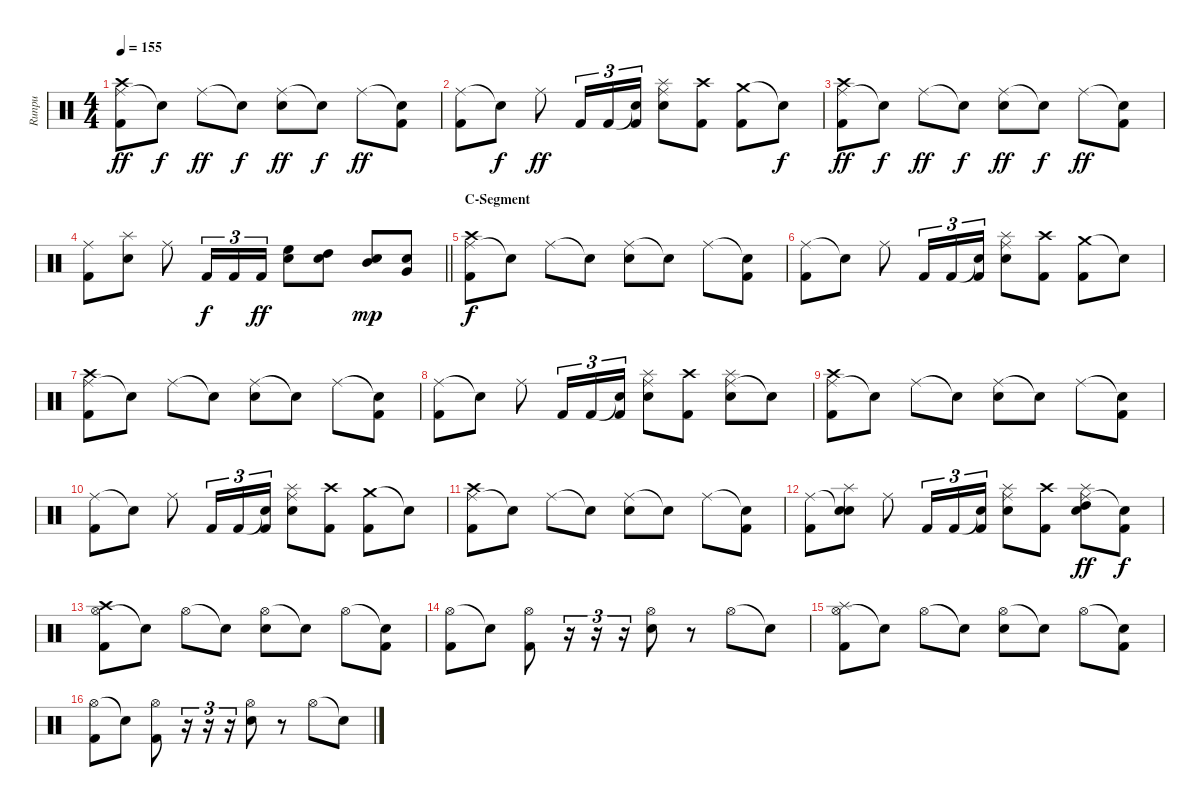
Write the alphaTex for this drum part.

\track ("Runpu" "Runpu") {instrument percussion}
\staff {score}
\articulation defaults
\ts (4 4)
\tempo 155
\clef neutral
\ks c
("Ride (middle)" "Crash high (hit)" "Kick (hit) 2").8{dy ff} "Snare (hit)"{t}.8{dy f} "Ride (middle)".8{dy ff} "Snare (hit)"{t}.8{dy f} ("Ride (middle)" "Snare (hit) 2").8{dy ff} "Snare (hit)"{t}.8{dy f} "Ride (middle)".8{dy ff} ("Snare (hit)"{t} "Kick (hit) 2").8 |
("Ride (middle)" "Kick (hit) 2").8 "Snare (hit)"{t}.8{dy f} "Ride (middle)".8{dy ff} "Kick (hit) 2".16{tu (3 2)} "Kick (hit) 2".16{tu (3 2)} ("Snare (hit)"{t} "Kick (hit) 2").16{tu (3 2)} ("Ride (middle)" "Splash (hit)" "Snare (hit) 2").8 ("Crash high (hit)" "Kick (hit) 2").8 ("Crash medium (hit)" "Kick (hit) 2").8 "Snare (hit)"{t}.8{dy f} |
("Ride (middle)" "Crash high (hit)" "Kick (hit) 2").8{dy ff} "Snare (hit)"{t}.8{dy f} "Ride (middle)".8{dy ff} "Snare (hit)"{t}.8{dy f} ("Ride (middle)" "Snare (hit) 2").8{dy ff} "Snare (hit)"{t}.8{dy f} "Ride (middle)".8{dy ff} ("Snare (hit)"{t} "Kick (hit) 2").8 |
\barLineRight lightlight
("Ride (middle)" "Kick (hit) 2").8 ("Splash (hit)" "Snare (hit) 2").8 "Ride (middle)".8 "Kick (hit) 2".16{tu (3 2) dy f} "Kick (hit) 2".16{tu (3 2)} "Kick (hit) 2".16{tu (3 2) dy ff} ("High Floor Tom (hit)" "Snare (hit) 2").8 ("High Tom (hit)" "Electric Snare (hit)").8 ("Mid Tom (hit)" "Electric Snare (hit)").8{dy mp} ("Very Low Tom (hit)" "Electric Snare (hit)").8 |
\section ("" "C-Segment")
("Ride (middle)" "Crash high (hit)" "Kick (hit) 2").8{dy f} "Snare (hit)"{t}.8 "Ride (middle)".8 "Snare (hit)"{t}.8 ("Ride (middle)" "Snare (hit) 2").8 "Snare (hit)"{t}.8 "Ride (middle)".8 ("Snare (hit)"{t} "Kick (hit) 2").8 |
("Ride (middle)" "Kick (hit) 2").8 "Snare (hit)"{t}.8 "Ride (middle)".8 "Kick (hit) 2".16{tu (3 2)} "Kick (hit) 2".16{tu (3 2)} ("Snare (hit)"{t} "Kick (hit) 2").16{tu (3 2)} ("Ride (middle)" "Splash (hit)" "Snare (hit) 2").8 ("Crash high (hit)" "Kick (hit) 2").8 ("Crash medium (hit)" "Kick (hit) 2").8 "Snare (hit)"{t}.8 |
("Ride (middle)" "Crash high (hit)" "Kick (hit) 2").8 "Snare (hit)"{t}.8 "Ride (middle)".8 "Snare (hit)"{t}.8 ("Ride (middle)" "Snare (hit) 2").8 "Snare (hit)"{t}.8 "Ride (middle)".8 ("Snare (hit)"{t} "Kick (hit) 2").8 |
("Ride (middle)" "Kick (hit) 2").8 "Snare (hit)"{t}.8 "Ride (middle)".8 "Kick (hit) 2".16{tu (3 2)} "Kick (hit) 2".16{tu (3 2)} ("Snare (hit)"{t} "Kick (hit) 2").16{tu (3 2)} ("Ride (middle)" "Splash (hit)" "Snare (hit) 2").8 ("Crash high (hit)" "Kick (hit) 2").8 ("Ride (middle)" "Splash (hit)" "Snare (hit) 2").8 "Snare (hit)"{t}.8 |
("Ride (middle)" "Crash high (hit)" "Kick (hit) 2").8 "Snare (hit)"{t}.8 "Ride (middle)".8 "Snare (hit)"{t}.8 ("Ride (middle)" "Snare (hit) 2").8 "Snare (hit)"{t}.8 "Ride (middle)".8 ("Snare (hit)"{t} "Kick (hit) 2").8 |
("Ride (middle)" "Kick (hit) 2").8 "Snare (hit)"{t}.8 "Ride (middle)".8 "Kick (hit) 2".16{tu (3 2)} "Kick (hit) 2".16{tu (3 2)} ("Snare (hit)"{t} "Kick (hit) 2").16{tu (3 2)} ("Ride (middle)" "Splash (hit)" "Snare (hit) 2").8 ("Crash high (hit)" "Kick (hit) 2").8 ("Crash medium (hit)" "Kick (hit) 2").8 "Snare (hit)"{t}.8 |
("Ride (middle)" "Crash high (hit)" "Kick (hit) 2").8 "Snare (hit)"{t}.8 "Ride (middle)".8 "Snare (hit)"{t}.8 ("Ride (middle)" "Snare (hit) 2").8 "Snare (hit)"{t}.8 "Ride (middle)".8 ("Snare (hit)"{t} "Kick (hit) 2").8 |
("Ride (middle)" "Kick (hit) 2").8 ("Snare (hit)"{t} "Splash (hit)" "Snare (hit) 2").8 "Ride (middle)".8 "Kick (hit) 2".16{tu (3 2)} "Kick (hit) 2".16{tu (3 2)} ("Snare (hit)"{t} "Kick (hit) 2").16{tu (3 2)} ("Ride (middle)" "Splash (hit)" "Snare (hit) 2").8 ("Crash high (hit)" "Kick (hit) 2").8 ("Ride (middle)" "Splash (hit)" "High Tom (hit)" "Electric Snare (hit)").8{dy ff} ("Snare (hit)"{t} "Kick (hit) 2").8{dy f} |
("Hi-Hat (open)" "Crash high (hit)" "Kick (hit) 2").8 "Snare (hit)"{t}.8 "Hi-Hat (open)".8 "Snare (hit)"{t}.8 ("Hi-Hat (open)" "Snare (hit) 2").8 "Snare (hit)"{t}.8 "Hi-Hat (open)".8 ("Snare (hit)"{t} "Kick (hit) 2").8 |
("Hi-Hat (open)" "Kick (hit) 2").8 "Snare (hit)"{t}.8 ("Hi-Hat (open)" "Kick (hit) 2").8 r.16{tu (3 2)} r.16{tu (3 2)} r.16{tu (3 2)} ("Hi-Hat (open)" "Snare (hit) 2").8 r.8 "Hi-Hat (open)".8 "Snare (hit)"{t}.8 |
("Hi-Hat (open)" "Splash (hit)" "Kick (hit) 2").8 "Snare (hit)"{t}.8 "Hi-Hat (open)".8 "Snare (hit)"{t}.8 ("Hi-Hat (open)" "Snare (hit) 2").8 "Snare (hit)"{t}.8 "Hi-Hat (open)".8 ("Snare (hit)"{t} "Kick (hit) 2").8 |
("Hi-Hat (open)" "Kick (hit) 2").8 "Snare (hit)"{t}.8 ("Hi-Hat (open)" "Kick (hit) 2").8 r.16{tu (3 2)} r.16{tu (3 2)} r.16{tu (3 2)} ("Hi-Hat (open)" "Snare (hit) 2").8 r.8 "Hi-Hat (open)".8 "Snare (hit)"{t}.8
